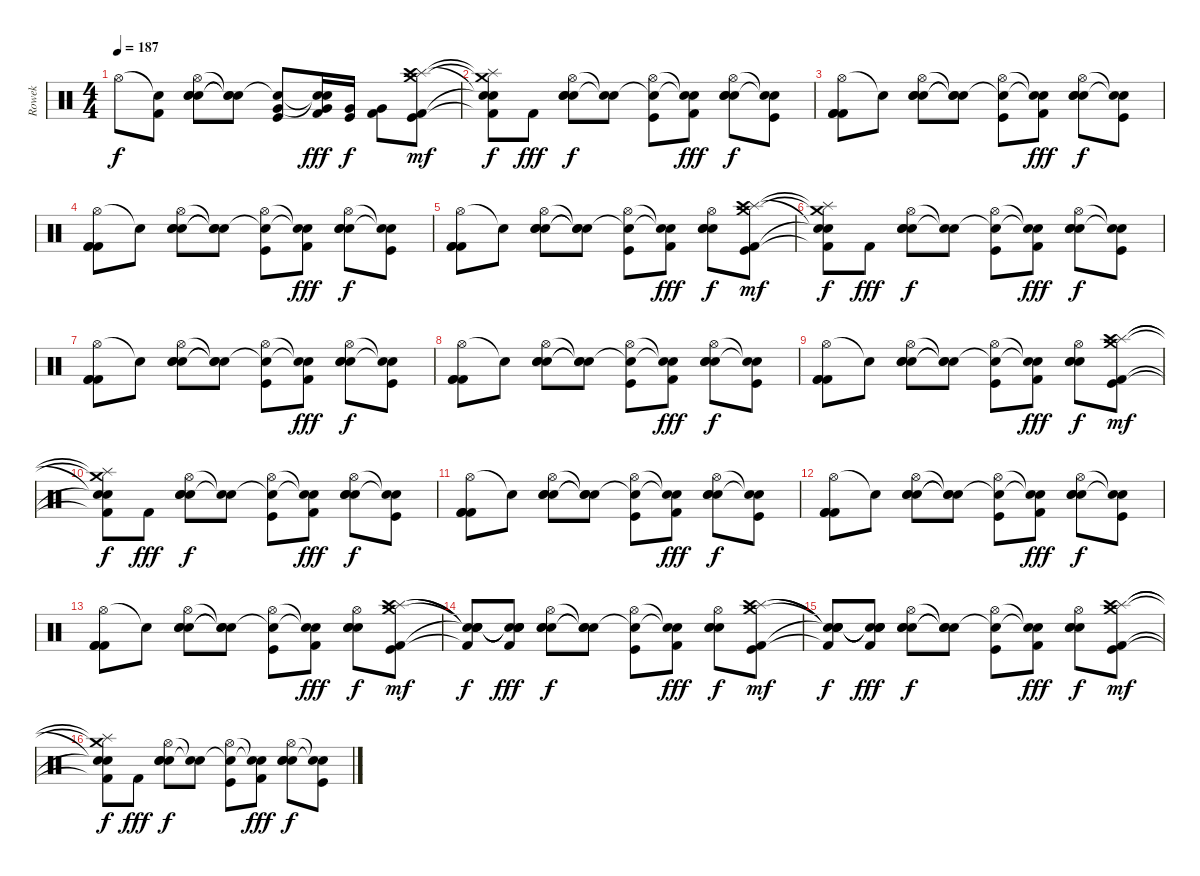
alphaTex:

\track ("Rowek" "Rowek") {instrument percussion}
\staff {score}
\articulation defaults
\ts (4 4)
\tempo 187
\clef neutral
\ks c "Hi-Hat (open)".8{dy f}
("Snare (hit)"{t} "Kick (hit) 2").8 ("Hi-Hat (open)" "Electric Snare (hit)" "Electric Snare (hit)" "Electric Snare (hit)").8 ("Snare (hit)"{t} "Snare (hit)"{t} "Snare (hit)"{t}).8 ("Snare (hit)"{t} "Very Low Tom (hit)" "Kick (hit)").8 ("Snare (hit)"{t} "Snare (hit)"{t} "Very Low Tom (hit)" "Kick (hit) 2").16{dy fff} ("Very Low Tom (hit)" "Kick (hit)").16{dy f} ("Very Low Tom (hit)" "Kick (hit) 2").8 ("Crash medium (hit)" "Splash (hit)" "Crash high (hit)" "Kick (hit) 2" "Kick (hit)").8{dy mf} |
("Crash medium (hit)"{t} "Splash (hit)"{t} "Snare (hit)"{t} "Snare (hit)"{t} "Kick (hit) 2"{t}).8{dy f} "Kick (hit) 2".8{dy fff} ("Hi-Hat (open)" "Electric Snare (hit)" "Electric Snare (hit)" "Electric Snare (hit)").8{dy f} ("Snare (hit)"{t} "Snare (hit)"{t}).8 ("Hi-Hat (open)" "Snare (hit)"{t} "Kick (hit)").8 ("Snare (hit)"{t} "Snare (hit)"{t} "Kick (hit) 2").8{dy fff} ("Hi-Hat (open)" "Electric Snare (hit)" "Electric Snare (hit)" "Electric Snare (hit)").8{dy f} ("Snare (hit)"{t} "Snare (hit)"{t} "Kick (hit)").8 |
("Hi-Hat (open)" "Kick (hit) 2" "Kick (hit) 2" "Kick (hit) 2").8 "Snare (hit)"{t}.8 ("Hi-Hat (open)" "Electric Snare (hit)" "Electric Snare (hit)" "Electric Snare (hit)").8 ("Snare (hit)"{t} "Snare (hit)"{t} "Snare (hit)"{t}).8 ("Hi-Hat (open)" "Snare (hit)"{t} "Kick (hit)").8 ("Snare (hit)"{t} "Snare (hit)"{t} "Kick (hit) 2").8{dy fff} ("Hi-Hat (open)" "Electric Snare (hit)" "Electric Snare (hit)" "Electric Snare (hit)").8{dy f} ("Snare (hit)"{t} "Snare (hit)"{t} "Kick (hit)").8 |
("Hi-Hat (open)" "Kick (hit) 2" "Kick (hit) 2" "Kick (hit) 2").8 "Snare (hit)"{t}.8 ("Hi-Hat (open)" "Electric Snare (hit)" "Electric Snare (hit)" "Electric Snare (hit)").8 ("Snare (hit)"{t} "Snare (hit)"{t} "Snare (hit)"{t}).8 ("Hi-Hat (open)" "Snare (hit)"{t} "Kick (hit)").8 ("Snare (hit)"{t} "Snare (hit)"{t} "Kick (hit) 2").8{dy fff} ("Hi-Hat (open)" "Electric Snare (hit)" "Electric Snare (hit)" "Electric Snare (hit)").8{dy f} ("Snare (hit)"{t} "Snare (hit)"{t} "Kick (hit)").8 |
("Hi-Hat (open)" "Kick (hit) 2" "Kick (hit) 2" "Kick (hit) 2").8 "Snare (hit)"{t}.8 ("Hi-Hat (open)" "Electric Snare (hit)" "Electric Snare (hit)" "Electric Snare (hit)").8 ("Snare (hit)"{t} "Snare (hit)"{t} "Snare (hit)"{t}).8 ("Hi-Hat (open)" "Snare (hit)"{t} "Kick (hit)").8 ("Snare (hit)"{t} "Snare (hit)"{t} "Kick (hit) 2").8{dy fff} ("Hi-Hat (open)" "Electric Snare (hit)" "Electric Snare (hit)" "Electric Snare (hit)").8{dy f} ("Crash medium (hit)" "Splash (hit)" "Crash high (hit)" "Kick (hit) 2" "Kick (hit)").8{dy mf} |
("Crash medium (hit)"{t} "Splash (hit)"{t} "Snare (hit)"{t} "Snare (hit)"{t} "Kick (hit) 2"{t}).8{dy f} "Kick (hit) 2".8{dy fff} ("Hi-Hat (open)" "Electric Snare (hit)" "Electric Snare (hit)" "Electric Snare (hit)").8{dy f} ("Snare (hit)"{t} "Snare (hit)"{t}).8 ("Hi-Hat (open)" "Snare (hit)"{t} "Kick (hit)").8 ("Snare (hit)"{t} "Snare (hit)"{t} "Kick (hit) 2").8{dy fff} ("Hi-Hat (open)" "Electric Snare (hit)" "Electric Snare (hit)" "Electric Snare (hit)").8{dy f} ("Snare (hit)"{t} "Snare (hit)"{t} "Kick (hit)").8 |
("Hi-Hat (open)" "Kick (hit) 2" "Kick (hit) 2" "Kick (hit) 2").8 "Snare (hit)"{t}.8 ("Hi-Hat (open)" "Electric Snare (hit)" "Electric Snare (hit)" "Electric Snare (hit)").8 ("Snare (hit)"{t} "Snare (hit)"{t} "Snare (hit)"{t}).8 ("Hi-Hat (open)" "Snare (hit)"{t} "Kick (hit)").8 ("Snare (hit)"{t} "Snare (hit)"{t} "Kick (hit) 2").8{dy fff} ("Hi-Hat (open)" "Electric Snare (hit)" "Electric Snare (hit)" "Electric Snare (hit)").8{dy f} ("Snare (hit)"{t} "Snare (hit)"{t} "Kick (hit)").8 |
("Hi-Hat (open)" "Kick (hit) 2" "Kick (hit) 2" "Kick (hit) 2").8 "Snare (hit)"{t}.8 ("Hi-Hat (open)" "Electric Snare (hit)" "Electric Snare (hit)" "Electric Snare (hit)").8 ("Snare (hit)"{t} "Snare (hit)"{t} "Snare (hit)"{t}).8 ("Hi-Hat (open)" "Snare (hit)"{t} "Kick (hit)").8 ("Snare (hit)"{t} "Snare (hit)"{t} "Kick (hit) 2").8{dy fff} ("Hi-Hat (open)" "Electric Snare (hit)" "Electric Snare (hit)" "Electric Snare (hit)").8{dy f} ("Snare (hit)"{t} "Snare (hit)"{t} "Kick (hit)").8 |
("Hi-Hat (open)" "Kick (hit) 2" "Kick (hit) 2" "Kick (hit) 2").8 "Snare (hit)"{t}.8 ("Hi-Hat (open)" "Electric Snare (hit)" "Electric Snare (hit)" "Electric Snare (hit)").8 ("Snare (hit)"{t} "Snare (hit)"{t} "Snare (hit)"{t}).8 ("Hi-Hat (open)" "Snare (hit)"{t} "Kick (hit)").8 ("Snare (hit)"{t} "Snare (hit)"{t} "Kick (hit) 2").8{dy fff} ("Hi-Hat (open)" "Electric Snare (hit)" "Electric Snare (hit)" "Electric Snare (hit)").8{dy f} ("Crash medium (hit)" "Splash (hit)" "Crash high (hit)" "Kick (hit) 2" "Kick (hit)").8{dy mf} |
("Crash medium (hit)"{t} "Splash (hit)"{t} "Snare (hit)"{t} "Snare (hit)"{t} "Kick (hit) 2"{t}).8{dy f} "Kick (hit) 2".8{dy fff} ("Hi-Hat (open)" "Electric Snare (hit)" "Electric Snare (hit)" "Electric Snare (hit)").8{dy f} ("Snare (hit)"{t} "Snare (hit)"{t}).8 ("Hi-Hat (open)" "Snare (hit)"{t} "Kick (hit)").8 ("Snare (hit)"{t} "Snare (hit)"{t} "Kick (hit) 2").8{dy fff} ("Hi-Hat (open)" "Electric Snare (hit)" "Electric Snare (hit)" "Electric Snare (hit)").8{dy f} ("Snare (hit)"{t} "Snare (hit)"{t} "Kick (hit)").8 |
("Hi-Hat (open)" "Kick (hit) 2" "Kick (hit) 2" "Kick (hit) 2").8 "Snare (hit)"{t}.8 ("Hi-Hat (open)" "Electric Snare (hit)" "Electric Snare (hit)" "Electric Snare (hit)").8 ("Snare (hit)"{t} "Snare (hit)"{t} "Snare (hit)"{t}).8 ("Hi-Hat (open)" "Snare (hit)"{t} "Kick (hit)").8 ("Snare (hit)"{t} "Snare (hit)"{t} "Kick (hit) 2").8{dy fff} ("Hi-Hat (open)" "Electric Snare (hit)" "Electric Snare (hit)" "Electric Snare (hit)").8{dy f} ("Snare (hit)"{t} "Snare (hit)"{t} "Kick (hit)").8 |
("Hi-Hat (open)" "Kick (hit) 2" "Kick (hit) 2" "Kick (hit) 2").8 "Snare (hit)"{t}.8 ("Hi-Hat (open)" "Electric Snare (hit)" "Electric Snare (hit)" "Electric Snare (hit)").8 ("Snare (hit)"{t} "Snare (hit)"{t} "Snare (hit)"{t}).8 ("Hi-Hat (open)" "Snare (hit)"{t} "Kick (hit)").8 ("Snare (hit)"{t} "Snare (hit)"{t} "Kick (hit) 2").8{dy fff} ("Hi-Hat (open)" "Electric Snare (hit)" "Electric Snare (hit)" "Electric Snare (hit)").8{dy f} ("Snare (hit)"{t} "Snare (hit)"{t} "Kick (hit)").8 |
("Hi-Hat (open)" "Kick (hit) 2" "Kick (hit) 2" "Kick (hit) 2").8 "Snare (hit)"{t}.8 ("Hi-Hat (open)" "Electric Snare (hit)" "Electric Snare (hit)" "Electric Snare (hit)").8 ("Snare (hit)"{t} "Snare (hit)"{t} "Snare (hit)"{t}).8 ("Hi-Hat (open)" "Snare (hit)"{t} "Kick (hit)").8 ("Snare (hit)"{t} "Snare (hit)"{t} "Kick (hit) 2").8{dy fff} ("Hi-Hat (open)" "Electric Snare (hit)" "Electric Snare (hit)" "Electric Snare (hit)").8{dy f} ("Crash medium (hit)" "Splash (hit)" "Crash high (hit)" "Kick (hit) 2" "Kick (hit)").8{dy mf} |
("Snare (hit)"{t} "Snare (hit)"{t} "Snare (hit)"{t} "Snare (hit)"{t} "Kick (hit) 2"{t}).8{dy f} ("Snare (hit)"{t} "Snare (hit)"{t} "Snare (hit)"{t} "Snare (hit)"{t} "Kick (hit) 2").8{dy fff} ("Hi-Hat (open)" "Electric Snare (hit)" "Electric Snare (hit)" "Electric Snare (hit)").8{dy f} ("Snare (hit)"{t} "Snare (hit)"{t} "Snare (hit)"{t}).8 ("Hi-Hat (open)" "Snare (hit)"{t} "Kick (hit)").8 ("Snare (hit)"{t} "Snare (hit)"{t} "Kick (hit) 2").8{dy fff} ("Hi-Hat (open)" "Electric Snare (hit)" "Electric Snare (hit)" "Electric Snare (hit)").8{dy f} ("Crash medium (hit)" "Splash (hit)" "Crash high (hit)" "Kick (hit) 2" "Kick (hit)").8{dy mf} |
("Snare (hit)"{t} "Snare (hit)"{t} "Snare (hit)"{t} "Snare (hit)"{t} "Kick (hit) 2"{t}).8{dy f} ("Snare (hit)"{t} "Snare (hit)"{t} "Snare (hit)"{t} "Snare (hit)"{t} "Kick (hit) 2").8{dy fff} ("Hi-Hat (open)" "Electric Snare (hit)" "Electric Snare (hit)" "Electric Snare (hit)").8{dy f} ("Snare (hit)"{t} "Snare (hit)"{t} "Snare (hit)"{t}).8 ("Hi-Hat (open)" "Snare (hit)"{t} "Kick (hit)").8 ("Snare (hit)"{t} "Snare (hit)"{t} "Kick (hit) 2").8{dy fff} ("Hi-Hat (open)" "Electric Snare (hit)" "Electric Snare (hit)" "Electric Snare (hit)").8{dy f} ("Crash medium (hit)" "Splash (hit)" "Crash high (hit)" "Kick (hit) 2" "Kick (hit)").8{dy mf} |
("Crash medium (hit)"{t} "Splash (hit)"{t} "Snare (hit)"{t} "Snare (hit)"{t} "Kick (hit) 2"{t}).8{dy f} "Kick (hit) 2".8{dy fff} ("Hi-Hat (open)" "Electric Snare (hit)" "Electric Snare (hit)" "Electric Snare (hit)").8{dy f} ("Snare (hit)"{t} "Snare (hit)"{t}).8 ("Hi-Hat (open)" "Snare (hit)"{t} "Kick (hit)").8 ("Snare (hit)"{t} "Snare (hit)"{t} "Kick (hit) 2").8{dy fff} ("Hi-Hat (open)" "Electric Snare (hit)" "Electric Snare (hit)" "Electric Snare (hit)").8{dy f} ("Snare (hit)"{t} "Snare (hit)"{t} "Kick (hit)").8
